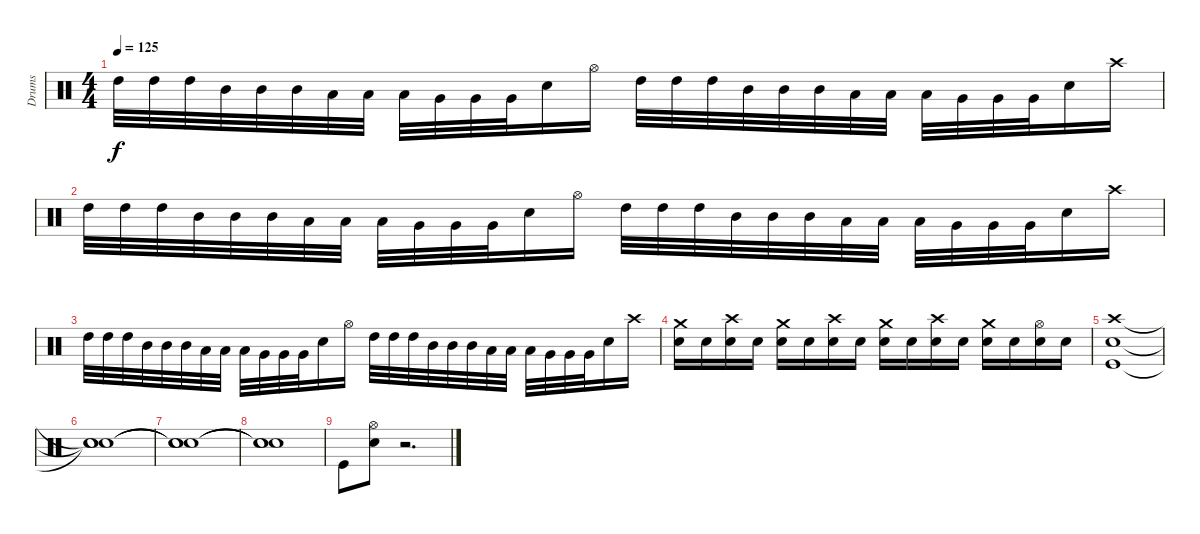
\track ("Drums" "Drums") {instrument percussion}
\staff {score}
\articulation defaults
\ts (4 4)
\tempo 125
\clef neutral
\ks c "High Tom (hit)".32{dy f} "High Tom (hit)".32 "High Tom (hit)".32 "Mid Tom (hit)".32 "Mid Tom (hit)".32 "Mid Tom (hit)".32 "Low Tom (hit)".32 "Low Tom (hit)".32 "Low Tom (hit)".32 "Very Low Tom (hit)".32 "Very Low Tom (hit)".32 "Very Low Tom (hit)".32 "Electric Snare (hit)".16 "Hi-Hat (open)".16 "High Tom (hit)".32 "High Tom (hit)".32 "High Tom (hit)".32 "Mid Tom (hit)".32 "Mid Tom (hit)".32 "Mid Tom (hit)".32 "Low Tom (hit)".32 "Low Tom (hit)".32 "Low Tom (hit)".32 "Very Low Tom (hit)".32 "Very Low Tom (hit)".32 "Very Low Tom (hit)".32 "Electric Snare (hit)".16 "Crash high (hit)".16
|
"High Tom (hit)".32 "High Tom (hit)".32 "High Tom (hit)".32 "Mid Tom (hit)".32 "Mid Tom (hit)".32 "Mid Tom (hit)".32 "Low Tom (hit)".32 "Low Tom (hit)".32 "Low Tom (hit)".32 "Very Low Tom (hit)".32 "Very Low Tom (hit)".32 "Very Low Tom (hit)".32 "Electric Snare (hit)".16 "Hi-Hat (open)".16 "High Tom (hit)".32 "High Tom (hit)".32 "High Tom (hit)".32 "Mid Tom (hit)".32 "Mid Tom (hit)".32 "Mid Tom (hit)".32 "Low Tom (hit)".32 "Low Tom (hit)".32 "Low Tom (hit)".32 "Very Low Tom (hit)".32 "Very Low Tom (hit)".32 "Very Low Tom (hit)".32 "Electric Snare (hit)".16 "Crash high (hit)".16 |
"High Tom (hit)".32 "High Tom (hit)".32 "High Tom (hit)".32 "Mid Tom (hit)".32 "Mid Tom (hit)".32 "Mid Tom (hit)".32 "Low Tom (hit)".32 "Low Tom (hit)".32 "Low Tom (hit)".32 "Very Low Tom (hit)".32 "Very Low Tom (hit)".32 "Very Low Tom (hit)".32 "Electric Snare (hit)".16 "Hi-Hat (open)".16 "High Tom (hit)".32 "High Tom (hit)".32 "High Tom (hit)".32 "Mid Tom (hit)".32 "Mid Tom (hit)".32 "Mid Tom (hit)".32 "Low Tom (hit)".32 "Low Tom (hit)".32 "Low Tom (hit)".32 "Very Low Tom (hit)".32 "Very Low Tom (hit)".32 "Very Low Tom (hit)".32 "Electric Snare (hit)".16 "Crash high (hit)".16 |
("Crash medium (hit)" "Electric Snare (hit)").16 "Electric Snare (hit)".16 ("Crash high (hit)" "Electric Snare (hit)").16 "Electric Snare (hit)".16 ("Crash medium (hit)" "Electric Snare (hit)").16 "Electric Snare (hit)".16 ("Crash high (hit)" "Electric Snare (hit)").16 "Electric Snare (hit)".16 ("Crash medium (hit)" "Electric Snare (hit)").16 "Electric Snare (hit)".16 ("Crash high (hit)" "Electric Snare (hit)").16 "Electric Snare (hit)".16 ("Crash medium (hit)" "Electric Snare (hit)").16 "Electric Snare (hit)".16 ("Hi-Hat (open)" "Electric Snare (hit)").16 "Electric Snare (hit)".16 |
("Crash high (hit)" "Electric Snare (hit)" "Kick (hit)").1 |
("Snare (hit)"{t} "Snare (hit)"{t} "Snare (hit)"{t}).1 |
("Snare (hit)"{t} "Snare (hit)"{t} "Snare (hit)"{t}).1 |
("Snare (hit)"{t} "Snare (hit)"{t} "Snare (hit)"{t}).1 |
"Kick (hit)".8 ("Hi-Hat (open)" "Electric Snare (hit)").8 r.2{d}
